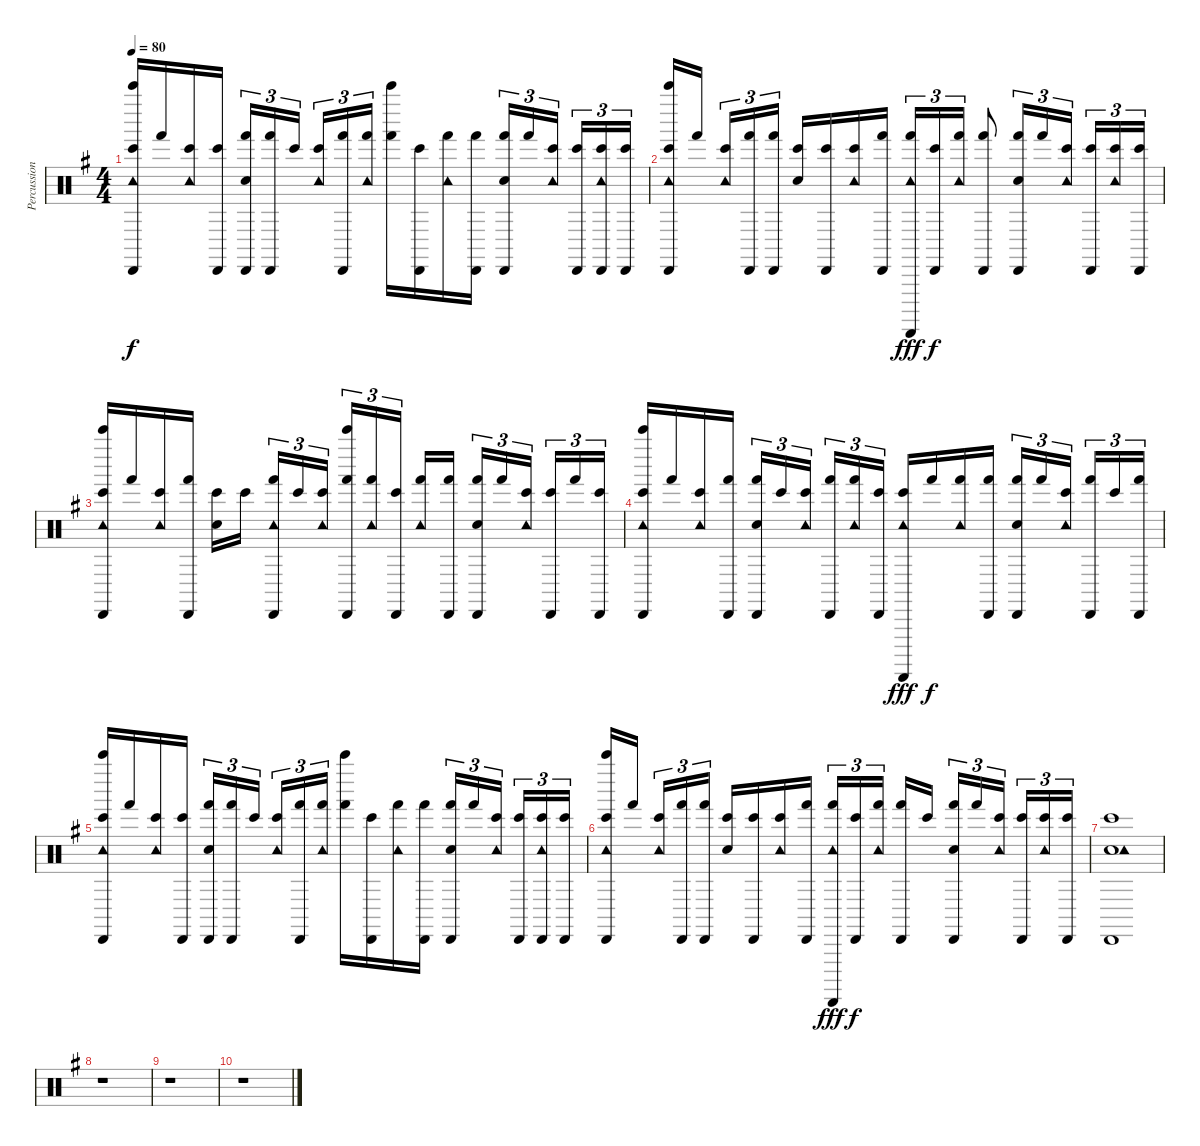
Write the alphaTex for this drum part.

\track ("Percussion" "Percussion") {instrument percussion}
\staff {score}
\articulation defaults
\ts (4 4)
\tempo 80
\clef neutral
\ks g
("Cabasa (hit)" "Bell Tree (hit)" "Tambourine (hit)" "Bongo High (hit)").16{dy f} "Hand (hit)".16 ("Tambourine (hit)" "Bongo High (hit)").16 ("Cabasa (hit)" "Bongo High (hit)").16 ("Cabasa (hit)" "Hand Clap (hit)" "Hand (hit)").16{tu (3 2)} ("Cabasa (hit)" "Hand (hit)").16{tu (3 2)} "Bongo High (hit)".16{tu (3 2)} ("Tambourine (hit)" "Bongo High (hit)").16{tu (3 2)} ("Cabasa (hit)" "Hand (hit)").16{tu (3 2)} ("Tambourine (hit)" "Hand (hit)").16{tu (3 2)} ("Bell Tree (hit)" "Hand (hit)").16 ("Cabasa (hit)" "Bongo High (hit)").16 ("Tambourine (hit)" "Hand (hit)").16 ("Cabasa (hit)" "Hand (hit)").16 ("Cabasa (hit)" "Hand Clap (hit)" "Hand (hit)").16{tu (3 2)} "Hand (hit)".16{tu (3 2)} ("Tambourine (hit)" "Bongo High (hit)").16{tu (3 2)} ("Cabasa (hit)" "Bongo High (hit)").16{tu (3 2)} ("Cabasa (hit)" "Tambourine (hit)" "Bongo High (hit)").16{tu (3 2)} ("Cabasa (hit)" "Bongo High (hit)").16{tu (3 2)} |
("Cabasa (hit)" "Bell Tree (hit)" "Tambourine (hit)" "Bongo High (hit)").16 "Hand (hit)".16 ("Tambourine (hit)" "Bongo High (hit)").16{tu (3 2)} ("Cabasa (hit)" "Hand (hit)").16{tu (3 2)} ("Cabasa (hit)" "Hand (hit)").16{tu (3 2)} ("Hand Clap (hit)" "Bongo High (hit)").16 ("Cabasa (hit)" "Bongo High (hit)").16 ("Tambourine (hit)" "Bongo High (hit)").16 ("Cabasa (hit)" "Hand (hit)").16 ("Guiro (scrap-return)" "Tambourine (hit)" "Hand (hit)").16{tu (3 2) dy fff} ("Cabasa (hit)" "Bongo High (hit)").16{tu (3 2) dy f} ("Tambourine (hit)" "Hand (hit)").16{tu (3 2)} ("Cabasa (hit)" "Hand (hit)").8 ("Cabasa (hit)" "Hand Clap (hit)" "Hand (hit)").16{tu (3 2)} "Hand (hit)".16{tu (3 2)} ("Tambourine (hit)" "Bongo High (hit)").16{tu (3 2)} ("Cabasa (hit)" "Bongo High (hit)").16{tu (3 2)} ("Tambourine (hit)" "Bongo High (hit)").16{tu (3 2)} ("Cabasa (hit)" "Bongo High (hit)").16{tu (3 2)} |
("Cabasa (hit)" "Bell Tree (hit)" "Tambourine (hit)" "Bongo High (hit)").16 "Hand (hit)".16 ("Tambourine (hit)" "Bongo High (hit)").16 ("Cabasa (hit)" "Hand (hit)").16 ("Hand Clap (hit)" "Bongo High (hit)").16 "Bongo High (hit)".16 ("Cabasa (hit)" "Tambourine (hit)" "Hand (hit)").16{tu (3 2)} "Bongo High (hit)".16{tu (3 2)} ("Tambourine (hit)" "Bongo High (hit)").16{tu (3 2)} ("Cabasa (hit)" "Bell Tree (hit)" "Hand (hit)").16{tu (3 2)} ("Tambourine (hit)" "Hand (hit)").16{tu (3 2)} ("Cabasa (hit)" "Bongo High (hit)").16{tu (3 2)} ("Tambourine (hit)" "Hand (hit)").16 ("Cabasa (hit)" "Hand (hit)").16 ("Cabasa (hit)" "Hand Clap (hit)" "Hand (hit)").16{tu (3 2)} "Hand (hit)".16{tu (3 2)} ("Tambourine (hit)" "Bongo High (hit)").16{tu (3 2)} ("Cabasa (hit)" "Bongo High (hit)").16{tu (3 2)} "Hand (hit)".16{tu (3 2)} ("Cabasa (hit)" "Bongo High (hit)").16{tu (3 2)} |
("Cabasa (hit)" "Bell Tree (hit)" "Tambourine (hit)" "Bongo High (hit)").16 "Hand (hit)".16 ("Tambourine (hit)" "Bongo High (hit)").16 ("Cabasa (hit)" "Hand (hit)").16 ("Cabasa (hit)" "Hand Clap (hit)" "Hand (hit)").16{tu (3 2)} "Bongo High (hit)".16{tu (3 2)} ("Tambourine (hit)" "Bongo High (hit)").16{tu (3 2)} ("Cabasa (hit)" "Hand (hit)").16{tu (3 2)} ("Tambourine (hit)" "Hand (hit)").16{tu (3 2)} ("Cabasa (hit)" "Bongo High (hit)").16{tu (3 2)} ("Guiro (scrap-return)" "Tambourine (hit)" "Bongo High (hit)").16{dy fff} "Hand (hit)".16{dy f} ("Tambourine (hit)" "Hand (hit)").16 ("Cabasa (hit)" "Hand (hit)").16 ("Cabasa (hit)" "Hand Clap (hit)" "Hand (hit)").16{tu (3 2)} "Hand (hit)".16{tu (3 2)} ("Tambourine (hit)" "Bongo High (hit)").16{tu (3 2)} ("Cabasa (hit)" "Hand (hit)").16{tu (3 2)} "Bongo High (hit)".16{tu (3 2)} ("Cabasa (hit)" "Hand (hit)").16{tu (3 2)} |
("Cabasa (hit)" "Bell Tree (hit)" "Tambourine (hit)" "Bongo High (hit)").16 "Hand (hit)".16 ("Tambourine (hit)" "Bongo High (hit)").16 ("Cabasa (hit)" "Bongo High (hit)").16 ("Cabasa (hit)" "Hand Clap (hit)" "Hand (hit)").16{tu (3 2)} ("Cabasa (hit)" "Hand (hit)").16{tu (3 2)} "Bongo High (hit)".16{tu (3 2)} ("Tambourine (hit)" "Bongo High (hit)").16{tu (3 2)} ("Cabasa (hit)" "Hand (hit)").16{tu (3 2)} ("Tambourine (hit)" "Hand (hit)").16{tu (3 2)} ("Bell Tree (hit)" "Hand (hit)").16 ("Cabasa (hit)" "Bongo High (hit)").16 ("Tambourine (hit)" "Hand (hit)").16 ("Cabasa (hit)" "Hand (hit)").16 ("Cabasa (hit)" "Hand Clap (hit)" "Hand (hit)").16{tu (3 2)} "Hand (hit)".16{tu (3 2)} ("Tambourine (hit)" "Bongo High (hit)").16{tu (3 2)} ("Cabasa (hit)" "Bongo High (hit)").16{tu (3 2)} ("Cabasa (hit)" "Tambourine (hit)" "Bongo High (hit)").16{tu (3 2)} ("Cabasa (hit)" "Bongo High (hit)").16{tu (3 2)} |
("Cabasa (hit)" "Bell Tree (hit)" "Tambourine (hit)" "Bongo High (hit)").16 "Hand (hit)".16 ("Tambourine (hit)" "Bongo High (hit)").16{tu (3 2)} ("Cabasa (hit)" "Hand (hit)").16{tu (3 2)} ("Cabasa (hit)" "Hand (hit)").16{tu (3 2)} ("Hand Clap (hit)" "Bongo High (hit)").16 ("Cabasa (hit)" "Bongo High (hit)").16 ("Tambourine (hit)" "Bongo High (hit)").16 ("Cabasa (hit)" "Hand (hit)").16 ("Guiro (scrap-return)" "Tambourine (hit)" "Hand (hit)").16{tu (3 2) dy fff} ("Cabasa (hit)" "Bongo High (hit)").16{tu (3 2) dy f} ("Tambourine (hit)" "Hand (hit)").16{tu (3 2)} ("Cabasa (hit)" "Hand (hit)").16 "Bongo High (hit)".16 ("Cabasa (hit)" "Hand Clap (hit)" "Hand (hit)").16{tu (3 2)} "Hand (hit)".16{tu (3 2)} ("Tambourine (hit)" "Bongo High (hit)").16{tu (3 2)} ("Cabasa (hit)" "Bongo High (hit)").16{tu (3 2)} ("Tambourine (hit)" "Bongo High (hit)").16{tu (3 2)} ("Cabasa (hit)" "Bongo High (hit)").16{tu (3 2)} |
("Cabasa (hit)" "Hand Clap (hit)" "Tambourine (hit)" "Bongo High (hit)").1 |
r.1{volume 0} |
r.1 |
r.1
